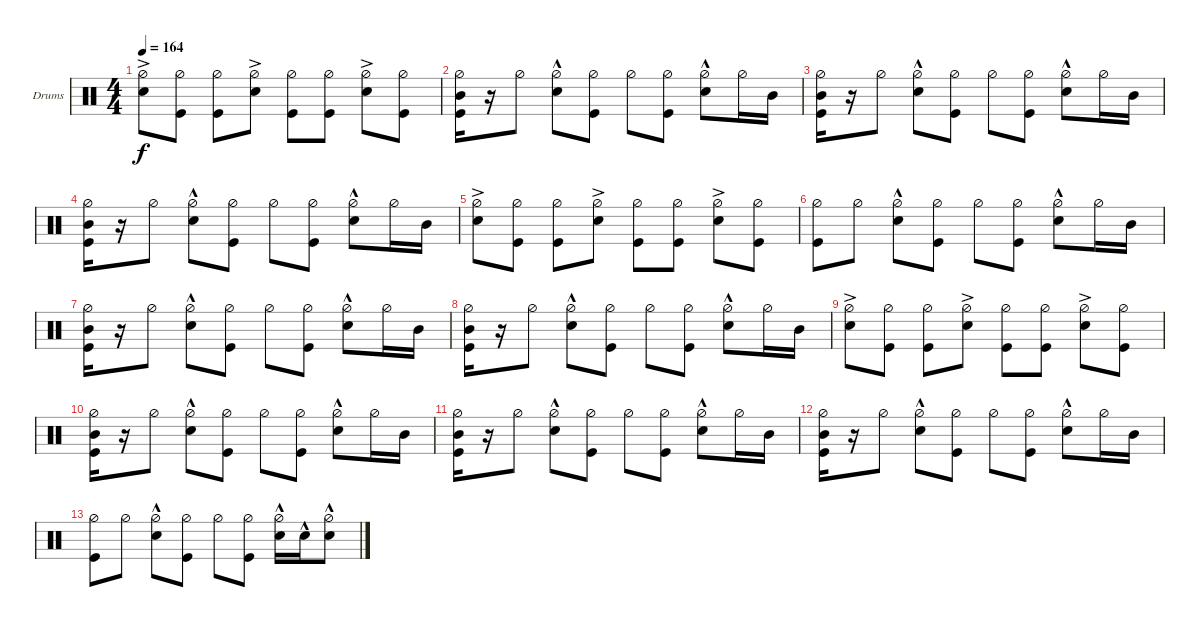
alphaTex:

\defaultSystemsLayout 4
\bracketExtendMode groupsimilarinstruments
\firstSystemTrackNameOrientation horizontal
\otherSystemsTrackNameOrientation horizontal
\track ("Drumkit" "Drums") {instrument percussion}
\staff {score}
\articulation defaults
\ts (4 4)
\tempo 164
\clef neutral
\ks c
("Snare (hit) 2"{ac} "Hi-Hat (half)").8{dy f} ("Kick (hit)" "Hi-Hat (half)").8 ("Kick (hit)" "Hi-Hat (half)").8 ("Snare (hit) 2"{ac} "Hi-Hat (half)").8 ("Kick (hit)" "Hi-Hat (half)").8 ("Kick (hit)" "Hi-Hat (half)").8 ("Snare (hit) 2"{ac} "Hi-Hat (half)").8 ("Kick (hit)" "Hi-Hat (half)").8 |
("Mid Tom (hit)" "Hi-Hat (half)" "Kick (hit)").16 r.16 "Hi-Hat (half)".8 ("Snare (hit) 2"{hac} "Hi-Hat (half)").8 ("Kick (hit)" "Hi-Hat (half)").8 "Hi-Hat (half)".8 ("Kick (hit)" "Hi-Hat (half)").8 ("Snare (hit) 2"{hac} "Hi-Hat (half)").8 "Hi-Hat (half)".16 "Mid Tom (hit)".16 |
("Mid Tom (hit)" "Hi-Hat (half)" "Kick (hit)").16 r.16 "Hi-Hat (half)".8 ("Snare (hit) 2"{hac} "Hi-Hat (half)").8 ("Kick (hit)" "Hi-Hat (half)").8 "Hi-Hat (half)".8 ("Kick (hit)" "Hi-Hat (half)").8 ("Snare (hit) 2"{hac} "Hi-Hat (half)").8 "Hi-Hat (half)".16 "Mid Tom (hit)".16 |
("Mid Tom (hit)" "Hi-Hat (half)" "Kick (hit)").16 r.16 "Hi-Hat (half)".8 ("Snare (hit) 2"{hac} "Hi-Hat (half)").8 ("Kick (hit)" "Hi-Hat (half)").8 "Hi-Hat (half)".8 ("Kick (hit)" "Hi-Hat (half)").8 ("Snare (hit) 2"{hac} "Hi-Hat (half)").8 "Hi-Hat (half)".16 "Mid Tom (hit)".16 |
("Snare (hit) 2"{ac} "Hi-Hat (half)").8 ("Kick (hit)" "Hi-Hat (half)").8 ("Kick (hit)" "Hi-Hat (half)").8 ("Snare (hit) 2"{ac} "Hi-Hat (half)").8 ("Kick (hit)" "Hi-Hat (half)").8 ("Kick (hit)" "Hi-Hat (half)").8 ("Snare (hit) 2"{ac} "Hi-Hat (half)").8 ("Kick (hit)" "Hi-Hat (half)").8 |
("Kick (hit)" "Hi-Hat (half)").8 "Hi-Hat (half)".8 ("Snare (hit) 2"{hac} "Hi-Hat (half)").8 ("Kick (hit)" "Hi-Hat (half)").8 "Hi-Hat (half)".8 ("Kick (hit)" "Hi-Hat (half)").8 ("Snare (hit) 2"{hac} "Hi-Hat (half)").8 "Hi-Hat (half)".16 "Mid Tom (hit)".16 |
("Mid Tom (hit)" "Hi-Hat (half)" "Kick (hit)").16 r.16 "Hi-Hat (half)".8 ("Snare (hit) 2"{hac} "Hi-Hat (half)").8 ("Kick (hit)" "Hi-Hat (half)").8 "Hi-Hat (half)".8 ("Kick (hit)" "Hi-Hat (half)").8 ("Snare (hit) 2"{hac} "Hi-Hat (half)").8 "Hi-Hat (half)".16 "Mid Tom (hit)".16 |
("Mid Tom (hit)" "Hi-Hat (half)" "Kick (hit)").16 r.16 "Hi-Hat (half)".8 ("Snare (hit) 2"{hac} "Hi-Hat (half)").8 ("Kick (hit)" "Hi-Hat (half)").8 "Hi-Hat (half)".8 ("Kick (hit)" "Hi-Hat (half)").8 ("Snare (hit) 2"{hac} "Hi-Hat (half)").8 "Hi-Hat (half)".16 "Mid Tom (hit)".16 |
("Snare (hit) 2"{ac} "Hi-Hat (half)").8 ("Kick (hit)" "Hi-Hat (half)").8 ("Kick (hit)" "Hi-Hat (half)").8 ("Snare (hit) 2"{ac} "Hi-Hat (half)").8 ("Kick (hit)" "Hi-Hat (half)").8 ("Kick (hit)" "Hi-Hat (half)").8 ("Snare (hit) 2"{ac} "Hi-Hat (half)").8 ("Kick (hit)" "Hi-Hat (half)").8 |
("Mid Tom (hit)" "Hi-Hat (half)" "Kick (hit)").16 r.16 "Hi-Hat (half)".8 ("Snare (hit) 2"{hac} "Hi-Hat (half)").8 ("Kick (hit)" "Hi-Hat (half)").8 "Hi-Hat (half)".8 ("Kick (hit)" "Hi-Hat (half)").8 ("Snare (hit) 2"{hac} "Hi-Hat (half)").8 "Hi-Hat (half)".16 "Mid Tom (hit)".16 |
("Mid Tom (hit)" "Hi-Hat (half)" "Kick (hit)").16 r.16 "Hi-Hat (half)".8 ("Snare (hit) 2"{hac} "Hi-Hat (half)").8 ("Kick (hit)" "Hi-Hat (half)").8 "Hi-Hat (half)".8 ("Kick (hit)" "Hi-Hat (half)").8 ("Snare (hit) 2"{hac} "Hi-Hat (half)").8 "Hi-Hat (half)".16 "Mid Tom (hit)".16 |
("Mid Tom (hit)" "Hi-Hat (half)" "Kick (hit)").16 r.16 "Hi-Hat (half)".8 ("Snare (hit) 2"{hac} "Hi-Hat (half)").8 ("Kick (hit)" "Hi-Hat (half)").8 "Hi-Hat (half)".8 ("Kick (hit)" "Hi-Hat (half)").8 ("Snare (hit) 2"{hac} "Hi-Hat (half)").8 "Hi-Hat (half)".16 "Mid Tom (hit)".16 |
("Kick (hit)" "Hi-Hat (half)").8 "Hi-Hat (half)".8 ("Snare (hit) 2"{hac} "Hi-Hat (half)").8 ("Kick (hit)" "Hi-Hat (half)").8 "Hi-Hat (half)".8 ("Hi-Hat (half)" "Kick (hit)").8 ("Snare (hit) 2"{hac} "Hi-Hat (half)").16 "Snare (hit) 2"{hac}.16 ("Snare (hit) 2"{hac} "Hi-Hat (half)").8
